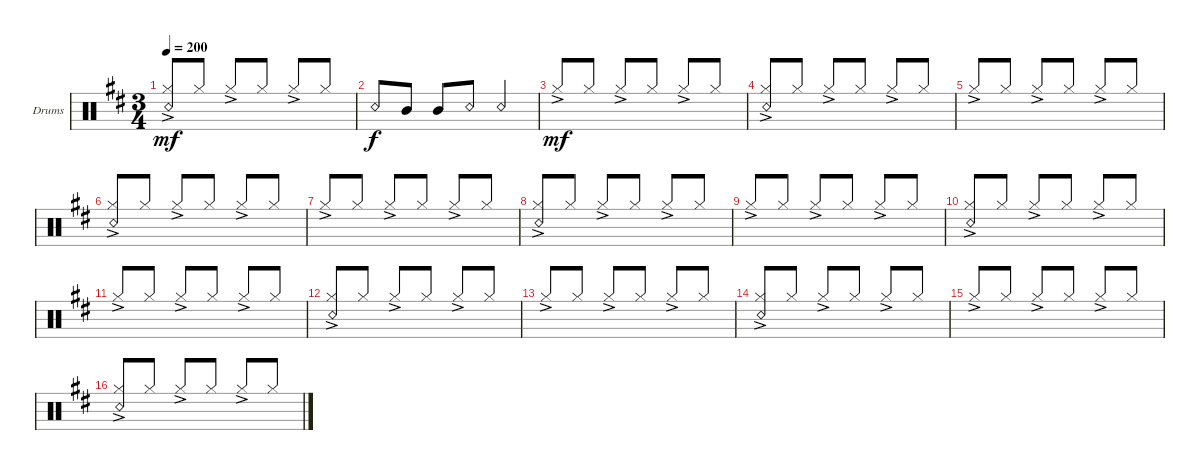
\defaultSystemsLayout 4
\bracketExtendMode groupsimilarinstruments
\firstSystemTrackNameOrientation horizontal
\otherSystemsTrackNameOrientation horizontal
\track ("Drumkit" "Drums") {instrument percussion}
\staff {score}
\articulation defaults
\ts (3 4)
\tempo 200
\clef neutral
\ks d
("Hi-Hat (closed)"{ac} "Snare (rim shot)").8{dy mf beam invert} "Hi-Hat (closed)".8 "Hi-Hat (closed)"{ac}.8{beam invert} "Hi-Hat (closed)".8 "Hi-Hat (closed)"{ac}.8{beam invert} "Hi-Hat (closed)".8 |
"Snare (rim shot)".8{dy f beam invert} "Mid Tom (hit)".8 "Mid Tom (hit)".8{beam invert} "Snare (rim shot)".8 "Snare (rim shot)".4{beam invert} |
"Hi-Hat (closed)"{ac}.8{dy mf beam invert} "Hi-Hat (closed)".8 "Hi-Hat (closed)"{ac}.8{beam invert} "Hi-Hat (closed)".8 "Hi-Hat (closed)"{ac}.8{beam invert} "Hi-Hat (closed)".8 |
("Hi-Hat (closed)"{ac} "Snare (rim shot)").8{beam invert} "Hi-Hat (closed)".8 "Hi-Hat (closed)"{ac}.8{beam invert} "Hi-Hat (closed)".8 "Hi-Hat (closed)"{ac}.8{beam invert} "Hi-Hat (closed)".8 |
"Hi-Hat (closed)"{ac}.8{beam invert} "Hi-Hat (closed)".8 "Hi-Hat (closed)"{ac}.8{beam invert} "Hi-Hat (closed)".8 "Hi-Hat (closed)"{ac}.8{beam invert} "Hi-Hat (closed)".8 |
("Hi-Hat (closed)"{ac} "Snare (rim shot)").8{beam invert} "Hi-Hat (closed)".8 "Hi-Hat (closed)"{ac}.8{beam invert} "Hi-Hat (closed)".8 "Hi-Hat (closed)"{ac}.8{beam invert} "Hi-Hat (closed)".8 |
"Hi-Hat (closed)"{ac}.8{beam invert} "Hi-Hat (closed)".8 "Hi-Hat (closed)"{ac}.8{beam invert} "Hi-Hat (closed)".8 "Hi-Hat (closed)"{ac}.8{beam invert} "Hi-Hat (closed)".8 |
("Hi-Hat (closed)"{ac} "Snare (rim shot)").8{beam invert} "Hi-Hat (closed)".8 "Hi-Hat (closed)"{ac}.8{beam invert} "Hi-Hat (closed)".8 "Hi-Hat (closed)"{ac}.8{beam invert} "Hi-Hat (closed)".8 |
"Hi-Hat (closed)"{ac}.8{beam invert} "Hi-Hat (closed)".8 "Hi-Hat (closed)"{ac}.8{beam invert} "Hi-Hat (closed)".8 "Hi-Hat (closed)"{ac}.8{beam invert} "Hi-Hat (closed)".8 |
("Hi-Hat (closed)"{ac} "Snare (rim shot)").8{beam invert} "Hi-Hat (closed)".8 "Hi-Hat (closed)"{ac}.8{beam invert} "Hi-Hat (closed)".8 "Hi-Hat (closed)"{ac}.8{beam invert} "Hi-Hat (closed)".8 |
"Hi-Hat (closed)"{ac}.8{beam invert} "Hi-Hat (closed)".8 "Hi-Hat (closed)"{ac}.8{beam invert} "Hi-Hat (closed)".8 "Hi-Hat (closed)"{ac}.8{beam invert} "Hi-Hat (closed)".8 |
("Hi-Hat (closed)"{ac} "Snare (rim shot)").8{beam invert} "Hi-Hat (closed)".8 "Hi-Hat (closed)"{ac}.8{beam invert} "Hi-Hat (closed)".8 "Hi-Hat (closed)"{ac}.8{beam invert} "Hi-Hat (closed)".8 |
"Hi-Hat (closed)"{ac}.8{beam invert} "Hi-Hat (closed)".8 "Hi-Hat (closed)"{ac}.8{beam invert} "Hi-Hat (closed)".8 "Hi-Hat (closed)"{ac}.8{beam invert} "Hi-Hat (closed)".8 |
("Hi-Hat (closed)"{ac} "Snare (rim shot)").8{beam invert} "Hi-Hat (closed)".8 "Hi-Hat (closed)"{ac}.8{beam invert} "Hi-Hat (closed)".8 "Hi-Hat (closed)"{ac}.8{beam invert} "Hi-Hat (closed)".8 |
"Hi-Hat (closed)"{ac}.8{beam invert} "Hi-Hat (closed)".8 "Hi-Hat (closed)"{ac}.8{beam invert} "Hi-Hat (closed)".8 "Hi-Hat (closed)"{ac}.8{beam invert} "Hi-Hat (closed)".8 |
("Hi-Hat (closed)"{ac} "Snare (rim shot)").8{beam invert} "Hi-Hat (closed)".8 "Hi-Hat (closed)"{ac}.8{beam invert} "Hi-Hat (closed)".8 "Hi-Hat (closed)"{ac}.8{beam invert} "Hi-Hat (closed)".8
